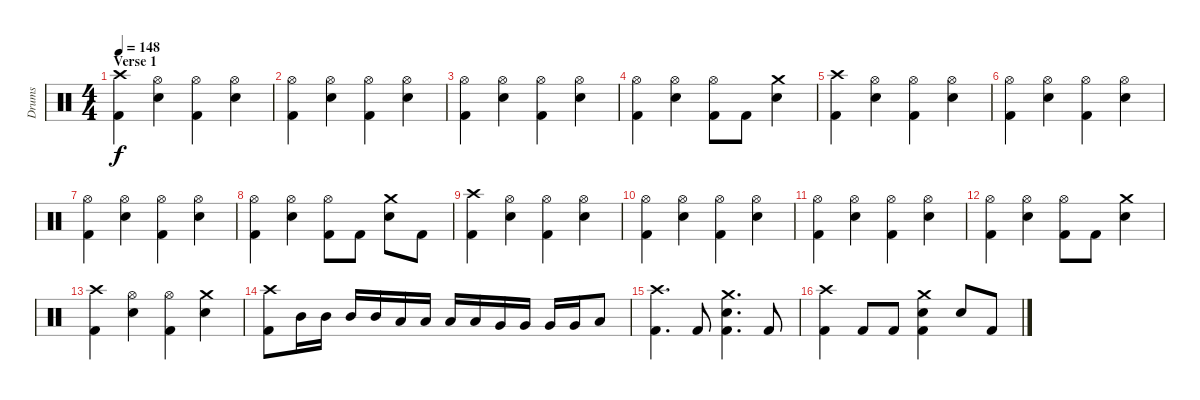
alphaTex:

\track ("Drums" "Drums") {instrument percussion}
\staff {score}
\articulation defaults
\ts (4 4)
\section ("" "Verse 1")
\tempo 148
\clef neutral
\ks c
("Crash high (hit)" "Kick (hit) 2").4{dy f} ("Hi-Hat (open)" "Snare (hit) 2").4 ("Hi-Hat (open)" "Kick (hit) 2").4 ("Hi-Hat (open)" "Snare (hit) 2").4 |
("Hi-Hat (open)" "Kick (hit) 2").4 ("Hi-Hat (open)" "Snare (hit) 2").4 ("Hi-Hat (open)" "Kick (hit) 2").4 ("Hi-Hat (open)" "Snare (hit) 2").4 |
("Hi-Hat (open)" "Kick (hit) 2").4 ("Hi-Hat (open)" "Snare (hit) 2").4 ("Hi-Hat (open)" "Kick (hit) 2").4 ("Hi-Hat (open)" "Snare (hit) 2").4 |
("Hi-Hat (open)" "Kick (hit) 2").4 ("Hi-Hat (open)" "Snare (hit) 2").4 ("Hi-Hat (open)" "Kick (hit) 2").8 "Kick (hit) 2".8 ("Crash medium (hit)" "Snare (hit) 2").4 |
("Crash high (hit)" "Kick (hit) 2").4 ("Hi-Hat (open)" "Snare (hit) 2").4 ("Hi-Hat (open)" "Kick (hit) 2").4 ("Hi-Hat (open)" "Snare (hit) 2").4 |
("Hi-Hat (open)" "Kick (hit) 2").4 ("Hi-Hat (open)" "Snare (hit) 2").4 ("Hi-Hat (open)" "Kick (hit) 2").4 ("Hi-Hat (open)" "Snare (hit) 2").4 |
("Hi-Hat (open)" "Kick (hit) 2").4 ("Hi-Hat (open)" "Snare (hit) 2").4 ("Hi-Hat (open)" "Kick (hit) 2").4 ("Hi-Hat (open)" "Snare (hit) 2").4 |
("Hi-Hat (open)" "Kick (hit) 2").4 ("Hi-Hat (open)" "Snare (hit) 2").4 ("Hi-Hat (open)" "Kick (hit) 2").8 "Kick (hit) 2".8 ("Crash medium (hit)" "Snare (hit) 2").8 "Kick (hit) 2".8 |
("Crash high (hit)" "Kick (hit) 2").4 ("Hi-Hat (open)" "Snare (hit) 2").4 ("Hi-Hat (open)" "Kick (hit) 2").4 ("Hi-Hat (open)" "Snare (hit) 2").4 |
("Hi-Hat (open)" "Kick (hit) 2").4 ("Hi-Hat (open)" "Snare (hit) 2").4 ("Hi-Hat (open)" "Kick (hit) 2").4 ("Hi-Hat (open)" "Snare (hit) 2").4 |
("Hi-Hat (open)" "Kick (hit) 2").4 ("Hi-Hat (open)" "Snare (hit) 2").4 ("Hi-Hat (open)" "Kick (hit) 2").4 ("Hi-Hat (open)" "Snare (hit) 2").4 |
("Hi-Hat (open)" "Kick (hit) 2").4 ("Hi-Hat (open)" "Snare (hit) 2").4 ("Hi-Hat (open)" "Kick (hit) 2").8 "Kick (hit) 2".8 ("Crash medium (hit)" "Snare (hit) 2").4 |
("Crash high (hit)" "Kick (hit) 2").4 ("Hi-Hat (open)" "Snare (hit) 2").4 ("Hi-Hat (open)" "Kick (hit) 2").4 ("Crash medium (hit)" "Snare (hit) 2").4 |
("Crash high (hit)" "Kick (hit) 2").8 "Mid Tom (hit)".16 "Mid Tom (hit)".16 "Mid Tom (hit)".16 "Mid Tom (hit)".16 "Low Tom (hit)".16 "Low Tom (hit)".16 "Low Tom (hit)".16 "Low Tom (hit)".16 "Very Low Tom (hit)".16 "Very Low Tom (hit)".16 "Very Low Tom (hit)".16 "Very Low Tom (hit)".16 "Low Floor Tom (hit)".8 |
("Crash high (hit)" "Kick (hit) 2").4{d} "Kick (hit) 2".8 ("Crash medium (hit)" "Snare (hit) 2" "Kick (hit) 2").4{d} "Kick (hit) 2".8 |
("Crash high (hit)" "Kick (hit) 2").4 "Kick (hit) 2".8 "Kick (hit) 2".8 ("Crash medium (hit)" "Snare (hit) 2" "Kick (hit) 2").4 "Snare (hit) 2".8 "Kick (hit) 2".8
